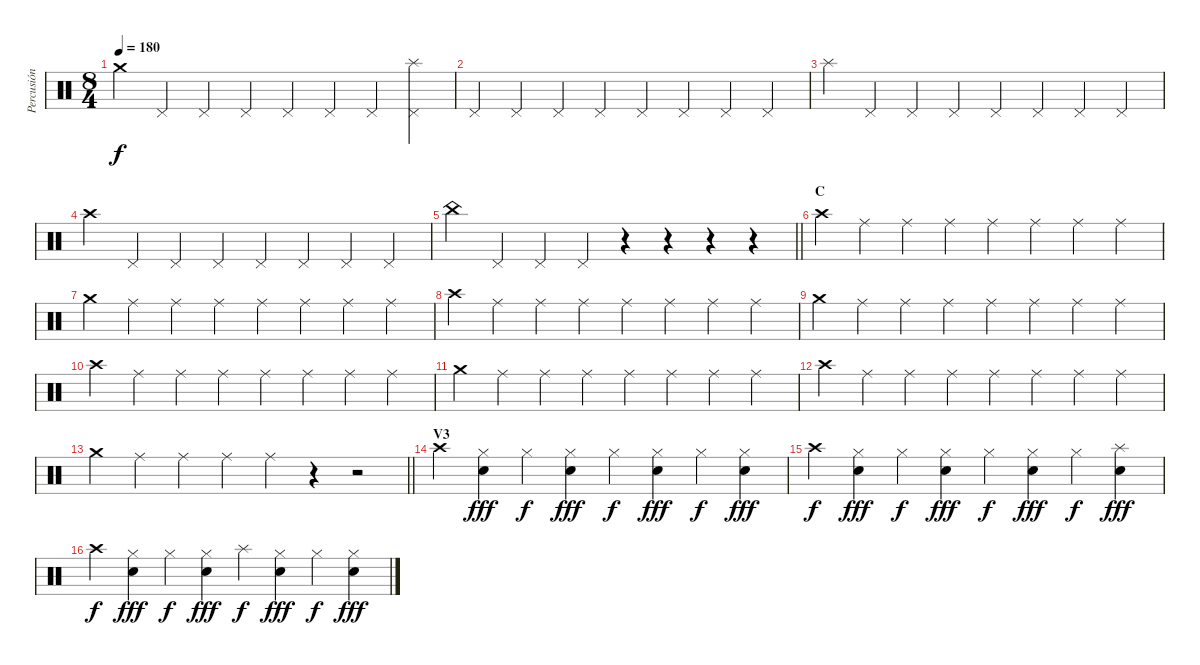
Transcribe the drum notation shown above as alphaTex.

\track ("Percusión" "Percusión") {instrument percussion}
\staff {score}
\articulation defaults
\ts (8 4)
\tempo 180
\clef neutral
\ks c "Crash medium (hit)".4{dy f} "Pedal Hi-Hat (hit)".4 "Pedal Hi-Hat (hit)".4 "Pedal Hi-Hat (hit)".4 "Pedal Hi-Hat (hit)".4 "Pedal Hi-Hat (hit)".4 "Pedal Hi-Hat (hit)".4
("Pedal Hi-Hat (hit)" "Splash (hit)").4 |
"Pedal Hi-Hat (hit)".4 "Pedal Hi-Hat (hit)".4 "Pedal Hi-Hat (hit)".4 "Pedal Hi-Hat (hit)".4 "Pedal Hi-Hat (hit)".4 "Pedal Hi-Hat (hit)".4 "Pedal Hi-Hat (hit)".4 "Pedal Hi-Hat (hit)".4 |
"Splash (hit)".4 "Pedal Hi-Hat (hit)".4 "Pedal Hi-Hat (hit)".4 "Pedal Hi-Hat (hit)".4 "Pedal Hi-Hat (hit)".4 "Pedal Hi-Hat (hit)".4 "Pedal Hi-Hat (hit)".4 "Pedal Hi-Hat (hit)".4 |
"Crash high (hit)".4 "Pedal Hi-Hat (hit)".4 "Pedal Hi-Hat (hit)".4 "Pedal Hi-Hat (hit)".4 "Pedal Hi-Hat (hit)".4 "Pedal Hi-Hat (hit)".4 "Pedal Hi-Hat (hit)".4 "Pedal Hi-Hat (hit)".4 |
\barLineRight lightlight "China (hit)".4 "Pedal Hi-Hat (hit)".4 "Pedal Hi-Hat (hit)".4 "Pedal Hi-Hat (hit)".4
r.4 r.4 r.4 r.4 |
\section ("" "C")
"Crash high (hit)".4 "Ride (middle)".4 "Ride (middle)".4 "Ride (middle)".4 "Ride (middle)".4 "Ride (middle)".4 "Ride (middle)".4 "Ride (middle)".4 |
"Crash medium (hit)".4 "Ride (middle)".4 "Ride (middle)".4 "Ride (middle)".4 "Ride (middle)".4 "Ride (middle)".4 "Ride (middle)".4 "Ride (middle)".4 |
"Crash high (hit)".4 "Ride (middle)".4 "Ride (middle)".4 "Ride (middle)".4 "Ride (middle)".4 "Ride (middle)".4 "Ride (middle)".4 "Ride (middle)".4 |
"Crash medium (hit)".4 "Ride (middle)".4 "Ride (middle)".4 "Ride (middle)".4 "Ride (middle)".4 "Ride (middle)".4 "Ride (middle)".4 "Ride (middle)".4 |
"Crash high (hit)".4 "Ride (middle)".4 "Ride (middle)".4 "Ride (middle)".4 "Ride (middle)".4 "Ride (middle)".4 "Ride (middle)".4 "Ride (middle)".4 |
"Crash medium (hit)".4 "Ride (middle)".4 "Ride (middle)".4 "Ride (middle)".4 "Ride (middle)".4 "Ride (middle)".4 "Ride (middle)".4 "Ride (middle)".4 |
"Crash high (hit)".4 "Ride (middle)".4 "Ride (middle)".4 "Ride (middle)".4 "Ride (middle)".4 "Ride (middle)".4 "Ride (middle)".4 "Ride (middle)".4 |
\barLineRight lightlight "Crash medium (hit)".4 "Ride (middle)".4 "Ride (middle)".4 "Ride (middle)".4 "Ride (middle)".4
r.4 r.2 |
\section ("" "V3")
"Crash high (hit)".4 ("Hi-Hat (closed)" "Electric Snare (hit)").4{dy fff} "Hi-Hat (closed)".4{dy f} ("Hi-Hat (closed)" "Electric Snare (hit)").4{dy fff} "Hi-Hat (closed)".4{dy f} ("Hi-Hat (closed)" "Electric Snare (hit)").4{dy fff} "Hi-Hat (closed)".4{dy f} ("Hi-Hat (closed)" "Electric Snare (hit)").4{dy fff} |
"Crash high (hit)".4{dy f} ("Hi-Hat (closed)" "Electric Snare (hit)").4{dy fff} "Hi-Hat (closed)".4{dy f} ("Hi-Hat (closed)" "Electric Snare (hit)").4{dy fff} "Hi-Hat (closed)".4{dy f} ("Hi-Hat (closed)" "Electric Snare (hit)").4{dy fff} "Hi-Hat (closed)".4{dy f} ("Splash (hit)" "Electric Snare (hit)").4{dy fff} |
"Crash high (hit)".4{dy f} ("Hi-Hat (closed)" "Electric Snare (hit)").4{dy fff} "Hi-Hat (closed)".4{dy f} ("Hi-Hat (closed)" "Electric Snare (hit)").4{dy fff} "Splash (hit)".4{dy f} ("Hi-Hat (closed)" "Electric Snare (hit)").4{dy fff} "Hi-Hat (closed)".4{dy f} ("Hi-Hat (closed)" "Electric Snare (hit)").4{dy fff}
